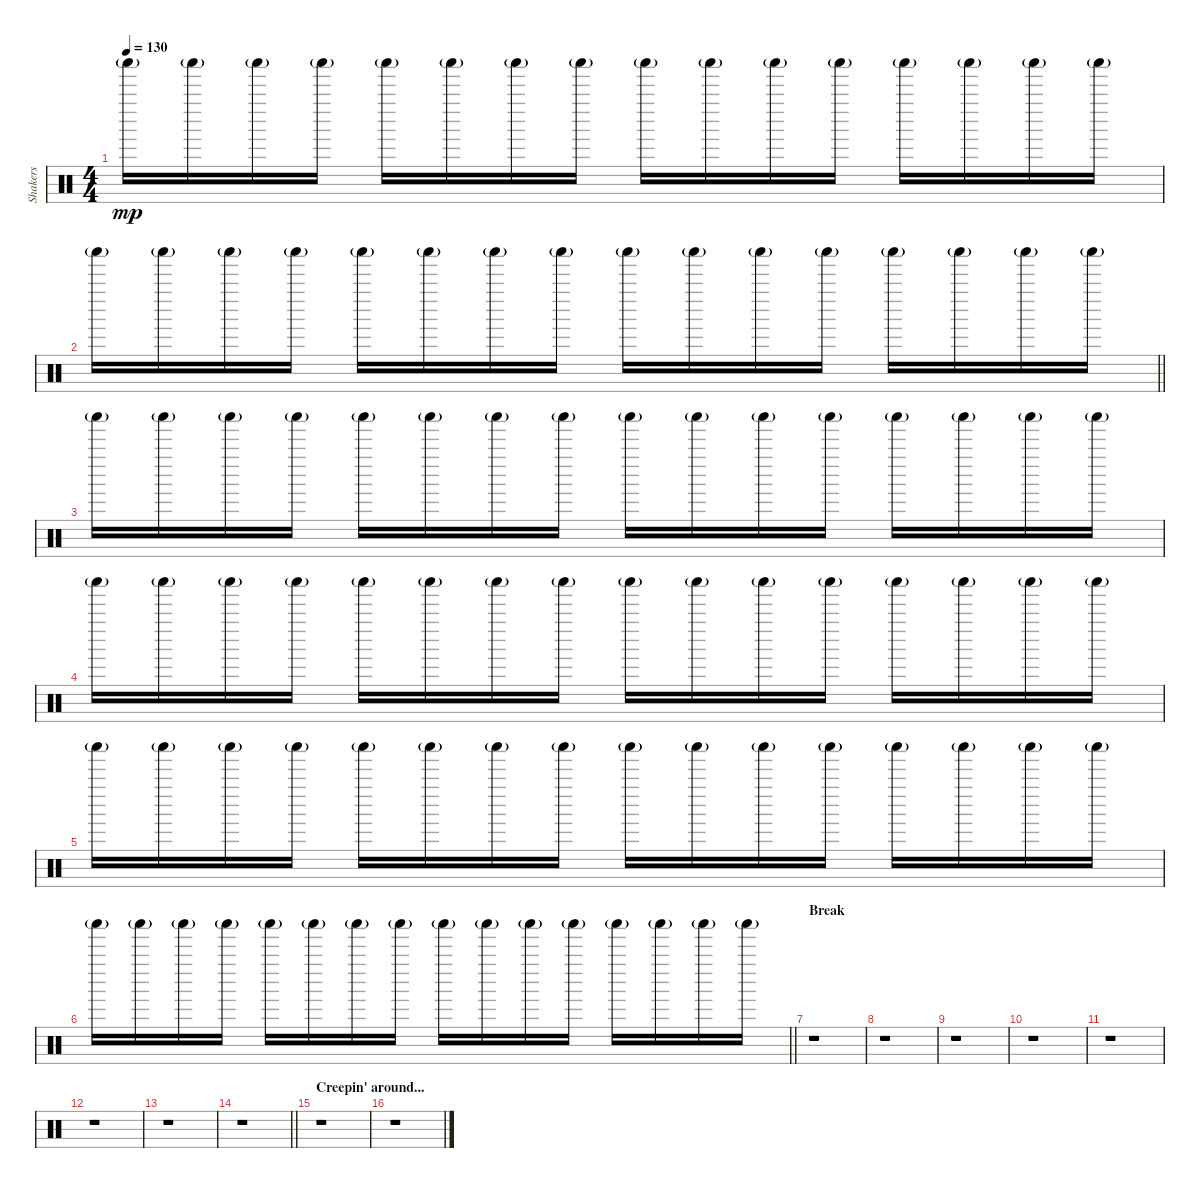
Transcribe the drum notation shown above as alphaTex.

\track ("Shakers" "Shakers") {instrument percussion}
\staff {score}
\articulation defaults
\ts (4 4)
\tempo 130
\clef neutral
\ks c "Shaker (hit)"{g}.16{dy mp} "Shaker (hit)"{g}.16 "Shaker (hit)"{g}.16 "Shaker (hit)"{g}.16 "Shaker (hit)"{g}.16 "Shaker (hit)"{g}.16 "Shaker (hit)"{g}.16 "Shaker (hit)"{g}.16 "Shaker (hit)"{g}.16 "Shaker (hit)"{g}.16 "Shaker (hit)"{g}.16 "Shaker (hit)"{g}.16 "Shaker (hit)"{g}.16 "Shaker (hit)"{g}.16 "Shaker (hit)"{g}.16 "Shaker (hit)"{g}.16
|
\barLineRight lightlight "Shaker (hit)"{g}.16 "Shaker (hit)"{g}.16 "Shaker (hit)"{g}.16 "Shaker (hit)"{g}.16 "Shaker (hit)"{g}.16 "Shaker (hit)"{g}.16 "Shaker (hit)"{g}.16 "Shaker (hit)"{g}.16 "Shaker (hit)"{g}.16 "Shaker (hit)"{g}.16 "Shaker (hit)"{g}.16 "Shaker (hit)"{g}.16 "Shaker (hit)"{g}.16 "Shaker (hit)"{g}.16 "Shaker (hit)"{g}.16 "Shaker (hit)"{g}.16
|
"Shaker (hit)"{g}.16 "Shaker (hit)"{g}.16 "Shaker (hit)"{g}.16 "Shaker (hit)"{g}.16 "Shaker (hit)"{g}.16 "Shaker (hit)"{g}.16 "Shaker (hit)"{g}.16 "Shaker (hit)"{g}.16 "Shaker (hit)"{g}.16 "Shaker (hit)"{g}.16 "Shaker (hit)"{g}.16 "Shaker (hit)"{g}.16 "Shaker (hit)"{g}.16 "Shaker (hit)"{g}.16 "Shaker (hit)"{g}.16 "Shaker (hit)"{g}.16 |
"Shaker (hit)"{g}.16 "Shaker (hit)"{g}.16 "Shaker (hit)"{g}.16 "Shaker (hit)"{g}.16 "Shaker (hit)"{g}.16 "Shaker (hit)"{g}.16 "Shaker (hit)"{g}.16 "Shaker (hit)"{g}.16 "Shaker (hit)"{g}.16 "Shaker (hit)"{g}.16 "Shaker (hit)"{g}.16 "Shaker (hit)"{g}.16 "Shaker (hit)"{g}.16 "Shaker (hit)"{g}.16 "Shaker (hit)"{g}.16 "Shaker (hit)"{g}.16 |
"Shaker (hit)"{g}.16 "Shaker (hit)"{g}.16 "Shaker (hit)"{g}.16 "Shaker (hit)"{g}.16 "Shaker (hit)"{g}.16 "Shaker (hit)"{g}.16 "Shaker (hit)"{g}.16 "Shaker (hit)"{g}.16 "Shaker (hit)"{g}.16 "Shaker (hit)"{g}.16 "Shaker (hit)"{g}.16 "Shaker (hit)"{g}.16 "Shaker (hit)"{g}.16 "Shaker (hit)"{g}.16 "Shaker (hit)"{g}.16 "Shaker (hit)"{g}.16 |
\barLineRight lightlight "Shaker (hit)"{g}.16 "Shaker (hit)"{g}.16 "Shaker (hit)"{g}.16 "Shaker (hit)"{g}.16 "Shaker (hit)"{g}.16 "Shaker (hit)"{g}.16 "Shaker (hit)"{g}.16 "Shaker (hit)"{g}.16 "Shaker (hit)"{g}.16 "Shaker (hit)"{g}.16 "Shaker (hit)"{g}.16 "Shaker (hit)"{g}.16 "Shaker (hit)"{g}.16 "Shaker (hit)"{g}.16 "Shaker (hit)"{g}.16 "Shaker (hit)"{g}.16
|
\section ("" "Break")
r.1 |
r.1 |
r.1 |
r.1 |
r.1 |
r.1 |
r.1 |
\barLineRight lightlight
r.1 |
\section ("" "Creepin' around...")
r.1 |
r.1
